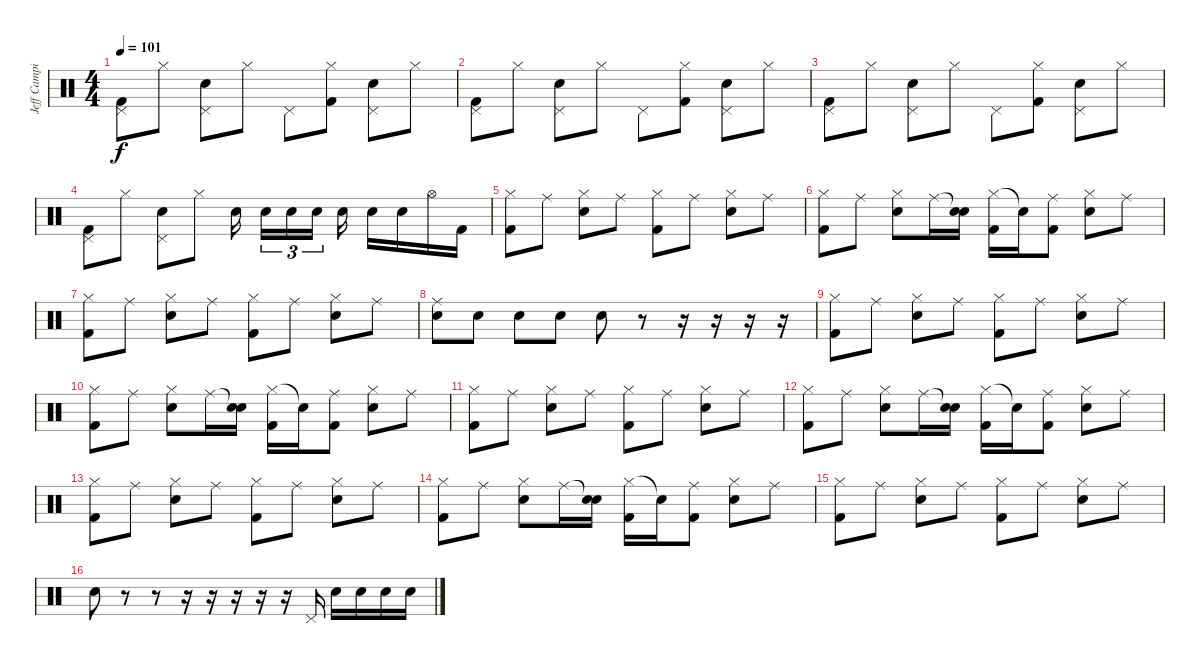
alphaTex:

\track ("Jeff Campitelli " "Jeff Campi") {instrument percussion}
\staff {score}
\articulation defaults
\ts (4 4)
\tempo 101
\clef neutral
\ks c
("Pedal Hi-Hat (hit)" "Kick (hit) 2").8{dy f} "Hi-Hat (closed)".8 ("Pedal Hi-Hat (hit)" "Electric Snare (hit)").8 "Hi-Hat (closed)".8 "Pedal Hi-Hat (hit)".8 ("Hi-Hat (closed)" "Kick (hit) 2").8 ("Pedal Hi-Hat (hit)" "Electric Snare (hit)").8 "Hi-Hat (closed)".8 |
("Pedal Hi-Hat (hit)" "Kick (hit) 2").8 "Hi-Hat (closed)".8 ("Pedal Hi-Hat (hit)" "Electric Snare (hit)").8 "Hi-Hat (closed)".8 "Pedal Hi-Hat (hit)".8 ("Hi-Hat (closed)" "Kick (hit) 2").8 ("Pedal Hi-Hat (hit)" "Electric Snare (hit)").8 "Hi-Hat (closed)".8 |
("Pedal Hi-Hat (hit)" "Kick (hit) 2").8 "Hi-Hat (closed)".8 ("Pedal Hi-Hat (hit)" "Electric Snare (hit)").8 "Hi-Hat (closed)".8 "Pedal Hi-Hat (hit)".8 ("Hi-Hat (closed)" "Kick (hit) 2").8 ("Pedal Hi-Hat (hit)" "Electric Snare (hit)").8 "Hi-Hat (closed)".8 |
("Pedal Hi-Hat (hit)" "Kick (hit) 2").8 "Hi-Hat (closed)".8 ("Pedal Hi-Hat (hit)" "Electric Snare (hit)").8 "Hi-Hat (closed)".8 "Electric Snare (hit)".16{beam splitsecondary} "Electric Snare (hit)".16{tu (3 2)} "Electric Snare (hit)".16{tu (3 2)} "Electric Snare (hit)".16{tu (3 2) beam splitsecondary} "Electric Snare (hit)".16 "Electric Snare (hit)".16 "Electric Snare (hit)".16 "Hi-Hat (open)".16 "Kick (hit) 2".16 |
("Hi-Hat (closed)" "Kick (hit) 2").8 "Ride (middle)".8 ("Hi-Hat (closed)" "Electric Snare (hit)").8 "Ride (middle)".8 ("Hi-Hat (closed)" "Kick (hit) 2").8 "Ride (middle)".8 ("Hi-Hat (closed)" "Electric Snare (hit)").8 "Ride (middle)".8 |
("Hi-Hat (closed)" "Kick (hit) 2").8 "Ride (middle)".8 ("Hi-Hat (closed)" "Electric Snare (hit)").8 "Ride (middle)".16 ("Snare (hit)"{t} "Electric Snare (hit)").16 ("Hi-Hat (closed)" "Kick (hit) 2").16 "Snare (hit)"{t}.16 ("Ride (middle)" "Kick (hit) 2").8 ("Hi-Hat (closed)" "Electric Snare (hit)").8 "Ride (middle)".8 |
("Hi-Hat (closed)" "Kick (hit) 2").8 "Ride (middle)".8 ("Hi-Hat (closed)" "Electric Snare (hit)").8 "Ride (middle)".8 ("Hi-Hat (closed)" "Kick (hit) 2").8 "Ride (middle)".8 ("Hi-Hat (closed)" "Electric Snare (hit)").8 "Ride (middle)".8 |
("Ride (middle)" "Electric Snare (hit)").8 "Electric Snare (hit)".8 "Electric Snare (hit)".8 "Electric Snare (hit)".8 "Electric Snare (hit)".8 r.8 r.16 r.16 r.16 r.16 |
("Hi-Hat (closed)" "Kick (hit) 2").8 "Ride (middle)".8 ("Hi-Hat (closed)" "Electric Snare (hit)").8 "Ride (middle)".8 ("Hi-Hat (closed)" "Kick (hit) 2").8 "Ride (middle)".8 ("Hi-Hat (closed)" "Electric Snare (hit)").8 "Ride (middle)".8 |
("Hi-Hat (closed)" "Kick (hit) 2").8 "Ride (middle)".8 ("Hi-Hat (closed)" "Electric Snare (hit)").8 "Ride (middle)".16 ("Snare (hit)"{t} "Electric Snare (hit)").16 ("Hi-Hat (closed)" "Kick (hit) 2").16 "Snare (hit)"{t}.16 ("Ride (middle)" "Kick (hit) 2").8 ("Hi-Hat (closed)" "Electric Snare (hit)").8 "Ride (middle)".8 |
("Hi-Hat (closed)" "Kick (hit) 2").8 "Ride (middle)".8 ("Hi-Hat (closed)" "Electric Snare (hit)").8 "Ride (middle)".8 ("Hi-Hat (closed)" "Kick (hit) 2").8 "Ride (middle)".8 ("Hi-Hat (closed)" "Electric Snare (hit)").8 "Ride (middle)".8 |
("Hi-Hat (closed)" "Kick (hit) 2").8 "Ride (middle)".8 ("Hi-Hat (closed)" "Electric Snare (hit)").8 "Ride (middle)".16 ("Snare (hit)"{t} "Electric Snare (hit)").16 ("Hi-Hat (closed)" "Kick (hit) 2").16 "Snare (hit)"{t}.16 ("Ride (middle)" "Kick (hit) 2").8 ("Hi-Hat (closed)" "Electric Snare (hit)").8 "Ride (middle)".8 |
("Hi-Hat (closed)" "Kick (hit) 2").8 "Ride (middle)".8 ("Hi-Hat (closed)" "Electric Snare (hit)").8 "Ride (middle)".8 ("Hi-Hat (closed)" "Kick (hit) 2").8 "Ride (middle)".8 ("Hi-Hat (closed)" "Electric Snare (hit)").8 "Ride (middle)".8 |
("Hi-Hat (closed)" "Kick (hit) 2").8 "Ride (middle)".8 ("Hi-Hat (closed)" "Electric Snare (hit)").8 "Ride (middle)".16 ("Snare (hit)"{t} "Electric Snare (hit)").16 ("Hi-Hat (closed)" "Kick (hit) 2").16 "Snare (hit)"{t}.16 ("Ride (middle)" "Kick (hit) 2").8 ("Hi-Hat (closed)" "Electric Snare (hit)").8 "Ride (middle)".8 |
("Hi-Hat (closed)" "Kick (hit) 2").8 "Ride (middle)".8 ("Hi-Hat (closed)" "Electric Snare (hit)").8 "Ride (middle)".8 ("Hi-Hat (closed)" "Kick (hit) 2").8 "Ride (middle)".8 ("Hi-Hat (closed)" "Electric Snare (hit)").8 "Ride (middle)".8 |
"Electric Snare (hit)".8 r.8 r.8 r.16 r.16 r.16 r.16 r.16 "Pedal Hi-Hat (hit)".16 "Electric Snare (hit)".16 "Electric Snare (hit)".16 "Electric Snare (hit)".16 "Electric Snare (hit)".16
